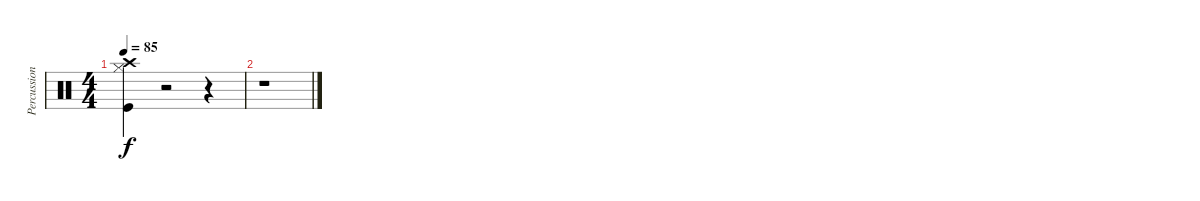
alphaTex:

\track ("Percussions" "Percussion") {instrument percussion}
\staff {score}
\articulation defaults
\ts (4 4)
\tempo 85
\clef neutral
\ks c
("Kick (hit)" "Hi-Hat (closed)" "Crash high (hit)").4{dy f} r.2 r.4 |
r.1
